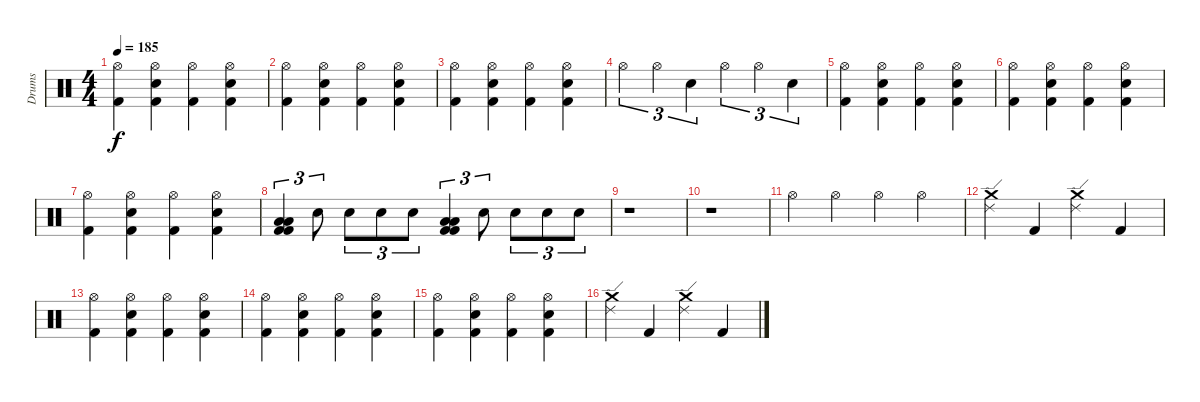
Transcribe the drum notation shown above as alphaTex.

\track ("Drums" "Drums") {instrument percussion}
\staff {score}
\articulation defaults
\ts (4 4)
\tempo 185
\clef neutral
\ks c
("Hi-Hat (open)" "Kick (hit) 2").4{dy f} ("Hi-Hat (open)" "Kick (hit) 2" "Snare (hit) 2").4 ("Hi-Hat (open)" "Kick (hit) 2").4 ("Hi-Hat (open)" "Kick (hit) 2" "Snare (hit) 2").4 |
("Hi-Hat (open)" "Kick (hit) 2").4 ("Hi-Hat (open)" "Kick (hit) 2" "Snare (hit) 2").4 ("Hi-Hat (open)" "Kick (hit) 2").4 ("Hi-Hat (open)" "Kick (hit) 2" "Snare (hit) 2").4 |
("Hi-Hat (open)" "Kick (hit) 2").4 ("Hi-Hat (open)" "Kick (hit) 2" "Snare (hit) 2").4 ("Hi-Hat (open)" "Kick (hit) 2").4 ("Hi-Hat (open)" "Kick (hit) 2" "Snare (hit) 2").4 |
"Hi-Hat (open)".4{tu (3 2)} "Hi-Hat (open)".4{tu (3 2)} "Snare (hit) 2".4{tu (3 2)} "Hi-Hat (open)".4{tu (3 2)} "Hi-Hat (open)".4{tu (3 2)} "Snare (hit) 2".4{tu (3 2)} |
("Hi-Hat (open)" "Kick (hit) 2").4 ("Hi-Hat (open)" "Kick (hit) 2" "Snare (hit) 2").4 ("Hi-Hat (open)" "Kick (hit) 2").4 ("Hi-Hat (open)" "Kick (hit) 2" "Snare (hit) 2").4 |
("Hi-Hat (open)" "Kick (hit) 2").4 ("Hi-Hat (open)" "Kick (hit) 2" "Snare (hit) 2").4 ("Hi-Hat (open)" "Kick (hit) 2").4 ("Hi-Hat (open)" "Kick (hit) 2" "Snare (hit) 2").4 |
("Hi-Hat (open)" "Kick (hit) 2").4 ("Hi-Hat (open)" "Kick (hit) 2" "Snare (hit) 2").4 ("Hi-Hat (open)" "Kick (hit) 2").4 ("Hi-Hat (open)" "Kick (hit) 2" "Snare (hit) 2").4 |
("Kick (hit) 2" "Kick (hit) 2" "Low Tom (hit)" "Low Tom (hit)").4{tu (3 2)} "Snare (hit) 2".8{tu (3 2)} "Snare (hit) 2".8{tu (3 2)} "Snare (hit) 2".8{tu (3 2)} "Snare (hit) 2".8{tu (3 2)} ("Kick (hit) 2" "Kick (hit) 2" "Low Tom (hit)" "Low Tom (hit)").4{tu (3 2)} "Snare (hit) 2".8{tu (3 2)} "Snare (hit) 2".8{tu (3 2)} "Snare (hit) 2".8{tu (3 2)} "Snare (hit) 2".8{tu (3 2)} |
r.1 |
r.1 |
"Hi-Hat (open)".4 "Hi-Hat (open)".4 "Hi-Hat (open)".4 "Hi-Hat (open)".4 |
("Crash medium (hit)" "Ride (edge) 2").4 "Kick (hit) 2".4 ("Crash medium (hit)" "Ride (edge) 2").4 "Kick (hit) 2".4 |
("Hi-Hat (open)" "Kick (hit) 2").4 ("Hi-Hat (open)" "Kick (hit) 2" "Snare (hit) 2").4 ("Hi-Hat (open)" "Kick (hit) 2").4 ("Hi-Hat (open)" "Kick (hit) 2" "Snare (hit) 2").4 |
("Hi-Hat (open)" "Kick (hit) 2").4 ("Hi-Hat (open)" "Kick (hit) 2" "Snare (hit) 2").4 ("Hi-Hat (open)" "Kick (hit) 2").4 ("Hi-Hat (open)" "Kick (hit) 2" "Snare (hit) 2").4 |
("Hi-Hat (open)" "Kick (hit) 2").4 ("Hi-Hat (open)" "Kick (hit) 2" "Snare (hit) 2").4 ("Hi-Hat (open)" "Kick (hit) 2").4 ("Hi-Hat (open)" "Kick (hit) 2" "Snare (hit) 2").4 |
("Crash medium (hit)" "Ride (edge) 2").4 "Kick (hit) 2".4 ("Crash medium (hit)" "Ride (edge) 2").4 "Kick (hit) 2".4
